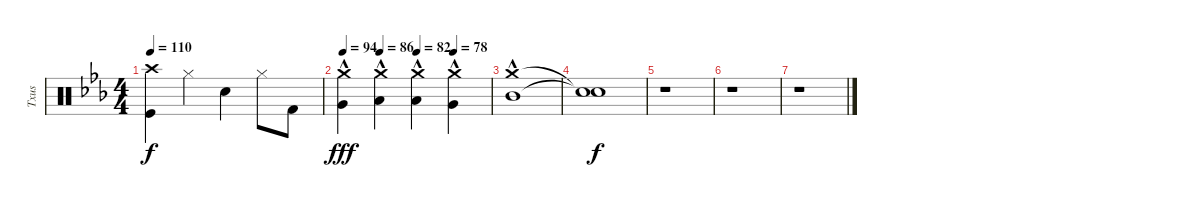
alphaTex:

\track ("Txus" "Txus") {instrument percussion}
\staff {score}
\articulation defaults
\ts (4 4)
\tempo 110
\clef neutral
\ks eb
("Crash high (hit)" "Kick (hit)").4{dy f} "Hi-Hat (closed)".4 "Electric Snare (hit)".4 "Hi-Hat (closed)".8 "Kick (hit) 2".8 |
\tempo 92
\tempo (84 0.25)
\tempo (80 0.5)
\tempo (76 0.75)
\tempo 94
\tempo (86 0.25)
\tempo (82 0.5)
\tempo (78 0.75)
("Crash medium (hit)" "Very Low Tom (hit)"{hac}).4{dy fff} ("Crash medium (hit)" "Low Floor Tom (hit)"{hac}).4 ("Crash medium (hit)" "Low Tom (hit)"{hac}).4 ("Crash medium (hit)" "Very Low Tom (hit)"{hac}).4 |
("Crash medium (hit)" "Mid Tom (hit)"{hac}).1 |
("Snare (hit)"{t} "Snare (hit)"{t}).1{dy f} |
r.1 |
r.1 |
r.1
